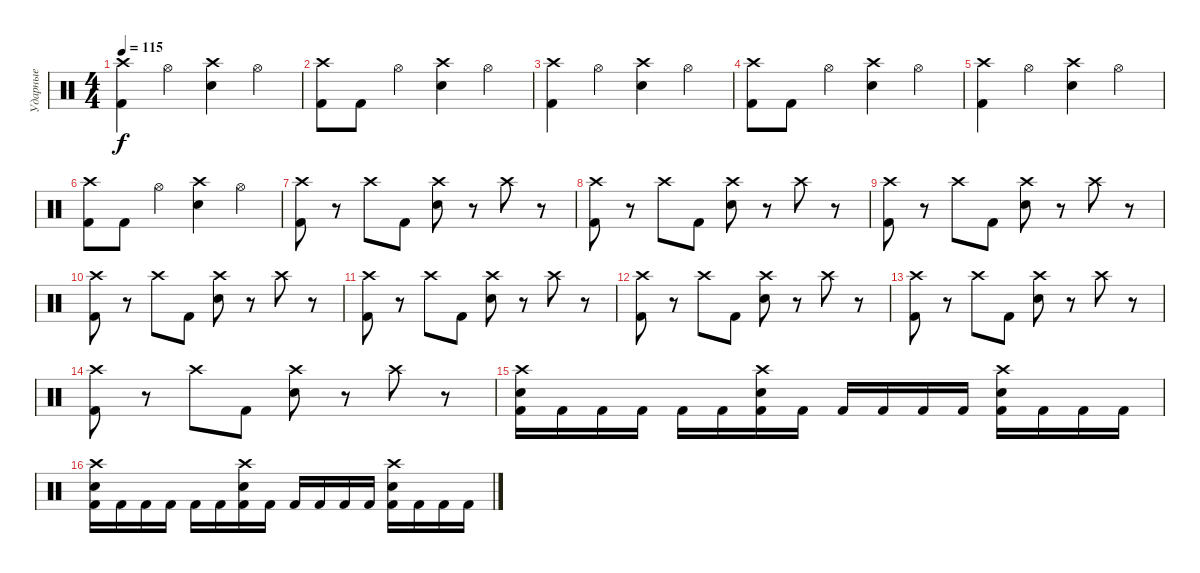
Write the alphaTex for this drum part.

\track ("Ударные" "Ударные") {mute instrument percussion}
\staff {score}
\articulation defaults
\ts (4 4)
\tempo 115
\clef neutral
\ks c
("Crash high (hit)" "Kick (hit) 2").4{dy f} "Hi-Hat (open)".4 ("Crash high (hit)" "Electric Snare (hit)").4 "Hi-Hat (open)".4 |
("Crash high (hit)" "Kick (hit) 2").8 "Kick (hit) 2".8 "Hi-Hat (open)".4 ("Crash high (hit)" "Electric Snare (hit)").4 "Hi-Hat (open)".4 |
("Crash high (hit)" "Kick (hit) 2").4 "Hi-Hat (open)".4 ("Crash high (hit)" "Electric Snare (hit)").4 "Hi-Hat (open)".4 |
("Crash high (hit)" "Kick (hit) 2").8 "Kick (hit) 2".8 "Hi-Hat (open)".4 ("Crash high (hit)" "Electric Snare (hit)").4 "Hi-Hat (open)".4 |
("Crash high (hit)" "Kick (hit) 2").4 "Hi-Hat (open)".4 ("Crash high (hit)" "Electric Snare (hit)").4 "Hi-Hat (open)".4 |
("Crash high (hit)" "Kick (hit) 2").8 "Kick (hit) 2".8 "Hi-Hat (open)".4 ("Crash high (hit)" "Electric Snare (hit)").4 "Hi-Hat (open)".4 |
("Kick (hit) 2" "Crash high (hit)").8 r.8 "Crash high (hit)".8 "Kick (hit) 2".8 ("Electric Snare (hit)" "Crash high (hit)").8 r.8 "Crash high (hit)".8 r.8 |
("Kick (hit) 2" "Crash high (hit)").8 r.8 "Crash high (hit)".8 "Kick (hit) 2".8 ("Electric Snare (hit)" "Crash high (hit)").8 r.8 "Crash high (hit)".8 r.8 |
("Kick (hit) 2" "Crash high (hit)").8 r.8 "Crash high (hit)".8 "Kick (hit) 2".8 ("Electric Snare (hit)" "Crash high (hit)").8 r.8 "Crash high (hit)".8 r.8 |
("Kick (hit) 2" "Crash high (hit)").8 r.8 "Crash high (hit)".8 "Kick (hit) 2".8 ("Electric Snare (hit)" "Crash high (hit)").8 r.8 "Crash high (hit)".8 r.8 |
("Kick (hit) 2" "Crash high (hit)").8 r.8 "Crash high (hit)".8 "Kick (hit) 2".8 ("Electric Snare (hit)" "Crash high (hit)").8 r.8 "Crash high (hit)".8 r.8 |
("Kick (hit) 2" "Crash high (hit)").8 r.8 "Crash high (hit)".8 "Kick (hit) 2".8 ("Electric Snare (hit)" "Crash high (hit)").8 r.8 "Crash high (hit)".8 r.8 |
("Kick (hit) 2" "Crash high (hit)").8 r.8 "Crash high (hit)".8 "Kick (hit) 2".8 ("Electric Snare (hit)" "Crash high (hit)").8 r.8 "Crash high (hit)".8 r.8 |
("Kick (hit) 2" "Crash high (hit)").8 r.8 "Crash high (hit)".8 "Kick (hit) 2".8 ("Electric Snare (hit)" "Crash high (hit)").8 r.8 "Crash high (hit)".8 r.8 |
("Crash high (hit)" "Electric Snare (hit)" "Kick (hit) 2").16 "Kick (hit) 2".16 "Kick (hit) 2".16 "Kick (hit) 2".16 "Kick (hit) 2".16 "Kick (hit) 2".16 ("Crash high (hit)" "Electric Snare (hit)" "Kick (hit) 2").16 "Kick (hit) 2".16 "Kick (hit) 2".16 "Kick (hit) 2".16 "Kick (hit) 2".16 "Kick (hit) 2".16 ("Crash high (hit)" "Electric Snare (hit)" "Kick (hit) 2").16 "Kick (hit) 2".16 "Kick (hit) 2".16 "Kick (hit) 2".16 |
("Crash high (hit)" "Electric Snare (hit)" "Kick (hit) 2").16 "Kick (hit) 2".16 "Kick (hit) 2".16 "Kick (hit) 2".16 "Kick (hit) 2".16 "Kick (hit) 2".16 ("Crash high (hit)" "Electric Snare (hit)" "Kick (hit) 2").16 "Kick (hit) 2".16 "Kick (hit) 2".16 "Kick (hit) 2".16 "Kick (hit) 2".16 "Kick (hit) 2".16 ("Crash high (hit)" "Electric Snare (hit)" "Kick (hit) 2").16 "Kick (hit) 2".16 "Kick (hit) 2".16 "Kick (hit) 2".16
